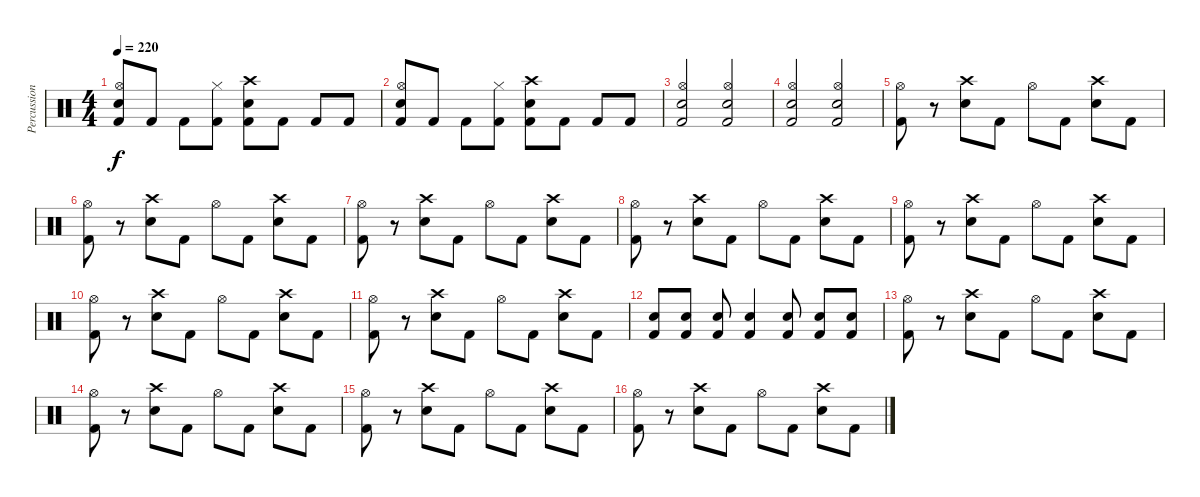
\track ("Percussion" "Percussion") {instrument percussion}
\staff {score}
\articulation defaults
\ts (4 4)
\tempo 220
\clef neutral
\ks c
("Snare (hit) 2" "Hi-Hat (open)" "Kick (hit) 2").8{dy f} "Kick (hit) 2".8 "Kick (hit) 2".8 ("Hi-Hat (closed)" "Kick (hit) 2").8 ("Snare (hit) 2" "Crash high (hit)" "Kick (hit) 2").8 "Kick (hit) 2".8 "Kick (hit) 2".8 "Kick (hit) 2".8 |
("Snare (hit) 2" "Hi-Hat (open)" "Kick (hit) 2").8 "Kick (hit) 2".8 "Kick (hit) 2".8 ("Hi-Hat (closed)" "Kick (hit) 2").8 ("Snare (hit) 2" "Crash high (hit)" "Kick (hit) 2").8 "Kick (hit) 2".8 "Kick (hit) 2".8 "Kick (hit) 2".8 |
("Snare (hit) 2" "Hi-Hat (open)" "Kick (hit) 2").2 ("Snare (hit) 2" "Hi-Hat (open)" "Kick (hit) 2").2 |
("Snare (hit) 2" "Hi-Hat (open)" "Kick (hit) 2").2 ("Snare (hit) 2" "Hi-Hat (open)" "Kick (hit) 2").2 |
("Kick (hit) 2" "Hi-Hat (open)").8 r.8 ("Snare (hit) 2" "Crash high (hit)").8 "Kick (hit) 2".8 "Hi-Hat (open)".8 "Kick (hit) 2".8 ("Snare (hit) 2" "Crash high (hit)").8 "Kick (hit) 2".8 |
("Kick (hit) 2" "Hi-Hat (open)").8 r.8 ("Snare (hit) 2" "Crash high (hit)").8 "Kick (hit) 2".8 "Hi-Hat (open)".8 "Kick (hit) 2".8 ("Snare (hit) 2" "Crash high (hit)").8 "Kick (hit) 2".8 |
("Kick (hit) 2" "Hi-Hat (open)").8 r.8 ("Snare (hit) 2" "Crash high (hit)").8 "Kick (hit) 2".8 "Hi-Hat (open)".8 "Kick (hit) 2".8 ("Snare (hit) 2" "Crash high (hit)").8 "Kick (hit) 2".8 |
("Kick (hit) 2" "Hi-Hat (open)").8 r.8 ("Snare (hit) 2" "Crash high (hit)").8 "Kick (hit) 2".8 "Hi-Hat (open)".8 "Kick (hit) 2".8 ("Snare (hit) 2" "Crash high (hit)").8 "Kick (hit) 2".8 |
("Kick (hit) 2" "Hi-Hat (open)").8 r.8 ("Snare (hit) 2" "Crash high (hit)").8 "Kick (hit) 2".8 "Hi-Hat (open)".8 "Kick (hit) 2".8 ("Snare (hit) 2" "Crash high (hit)").8 "Kick (hit) 2".8 |
("Kick (hit) 2" "Hi-Hat (open)").8 r.8 ("Snare (hit) 2" "Crash high (hit)").8 "Kick (hit) 2".8 "Hi-Hat (open)".8 "Kick (hit) 2".8 ("Snare (hit) 2" "Crash high (hit)").8 "Kick (hit) 2".8 |
("Kick (hit) 2" "Hi-Hat (open)").8 r.8 ("Snare (hit) 2" "Crash high (hit)").8 "Kick (hit) 2".8 "Hi-Hat (open)".8 "Kick (hit) 2".8 ("Snare (hit) 2" "Crash high (hit)").8 "Kick (hit) 2".8 |
("Snare (hit) 2" "Kick (hit) 2").8 ("Snare (hit) 2" "Kick (hit) 2").8 ("Snare (hit) 2" "Kick (hit) 2").8 ("Snare (hit) 2" "Kick (hit) 2").4 ("Snare (hit) 2" "Kick (hit) 2").8 ("Snare (hit) 2" "Kick (hit) 2").8 ("Snare (hit) 2" "Kick (hit) 2").8 |
("Kick (hit) 2" "Hi-Hat (open)").8 r.8 ("Snare (hit) 2" "Crash high (hit)").8 "Kick (hit) 2".8 "Hi-Hat (open)".8 "Kick (hit) 2".8 ("Snare (hit) 2" "Crash high (hit)").8 "Kick (hit) 2".8 |
("Kick (hit) 2" "Hi-Hat (open)").8 r.8 ("Snare (hit) 2" "Crash high (hit)").8 "Kick (hit) 2".8 "Hi-Hat (open)".8 "Kick (hit) 2".8 ("Snare (hit) 2" "Crash high (hit)").8 "Kick (hit) 2".8 |
("Kick (hit) 2" "Hi-Hat (open)").8 r.8 ("Snare (hit) 2" "Crash high (hit)").8 "Kick (hit) 2".8 "Hi-Hat (open)".8 "Kick (hit) 2".8 ("Snare (hit) 2" "Crash high (hit)").8 "Kick (hit) 2".8 |
("Kick (hit) 2" "Hi-Hat (open)").8 r.8 ("Snare (hit) 2" "Crash high (hit)").8 "Kick (hit) 2".8 "Hi-Hat (open)".8 "Kick (hit) 2".8 ("Snare (hit) 2" "Crash high (hit)").8 "Kick (hit) 2".8
